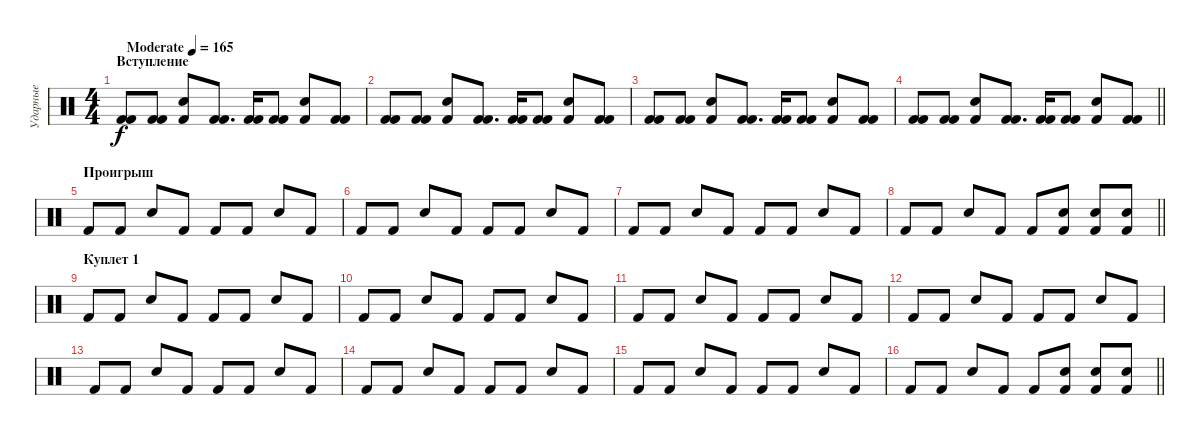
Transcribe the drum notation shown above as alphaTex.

\track ("Ударные" "Ударные") {instrument percussion}
\staff {score}
\articulation defaults
\ts (4 4)
\section ("" "Вступление")
\tempo (165 "Moderate")
\clef neutral
\ks c
("Kick (hit) 2" "Kick (hit) 2").8{dy f} ("Kick (hit) 2" "Kick (hit) 2").8 ("Snare (hit) 2" "Kick (hit) 2").8 ("Kick (hit) 2" "Kick (hit) 2").8{d} ("Kick (hit) 2" "Kick (hit) 2").16 ("Kick (hit) 2" "Kick (hit) 2").8 ("Snare (hit) 2" "Kick (hit) 2").8 ("Kick (hit) 2" "Kick (hit) 2").8 |
("Kick (hit) 2" "Kick (hit) 2").8 ("Kick (hit) 2" "Kick (hit) 2").8 ("Snare (hit) 2" "Kick (hit) 2").8 ("Kick (hit) 2" "Kick (hit) 2").8{d} ("Kick (hit) 2" "Kick (hit) 2").16 ("Kick (hit) 2" "Kick (hit) 2").8 ("Snare (hit) 2" "Kick (hit) 2").8 ("Kick (hit) 2" "Kick (hit) 2").8 |
("Kick (hit) 2" "Kick (hit) 2").8 ("Kick (hit) 2" "Kick (hit) 2").8 ("Snare (hit) 2" "Kick (hit) 2").8 ("Kick (hit) 2" "Kick (hit) 2").8{d} ("Kick (hit) 2" "Kick (hit) 2").16 ("Kick (hit) 2" "Kick (hit) 2").8 ("Snare (hit) 2" "Kick (hit) 2").8 ("Kick (hit) 2" "Kick (hit) 2").8 |
\barLineRight lightlight
("Kick (hit) 2" "Kick (hit) 2").8 ("Kick (hit) 2" "Kick (hit) 2").8 ("Snare (hit) 2" "Kick (hit) 2").8 ("Kick (hit) 2" "Kick (hit) 2").8{d} ("Kick (hit) 2" "Kick (hit) 2").16 ("Kick (hit) 2" "Kick (hit) 2").8 ("Snare (hit) 2" "Kick (hit) 2").8 ("Kick (hit) 2" "Kick (hit) 2").8 |
\section ("" "Проигрыш")
"Kick (hit) 2".8 "Kick (hit) 2".8 "Snare (hit) 2".8 "Kick (hit) 2".8 "Kick (hit) 2".8 "Kick (hit) 2".8 "Snare (hit) 2".8 "Kick (hit) 2".8 |
"Kick (hit) 2".8 "Kick (hit) 2".8 "Snare (hit) 2".8 "Kick (hit) 2".8 "Kick (hit) 2".8 "Kick (hit) 2".8 "Snare (hit) 2".8 "Kick (hit) 2".8 |
"Kick (hit) 2".8 "Kick (hit) 2".8 "Snare (hit) 2".8 "Kick (hit) 2".8 "Kick (hit) 2".8 "Kick (hit) 2".8 "Snare (hit) 2".8 "Kick (hit) 2".8 |
\barLineRight lightlight "Kick (hit) 2".8 "Kick (hit) 2".8 "Snare (hit) 2".8 "Kick (hit) 2".8 "Kick (hit) 2".8
("Kick (hit) 2" "Snare (hit) 2").8 ("Kick (hit) 2" "Snare (hit) 2").8 ("Kick (hit) 2" "Snare (hit) 2").8 |
\section ("" "Куплет 1")
"Kick (hit) 2".8 "Kick (hit) 2".8 "Snare (hit) 2".8 "Kick (hit) 2".8 "Kick (hit) 2".8 "Kick (hit) 2".8 "Snare (hit) 2".8 "Kick (hit) 2".8 |
"Kick (hit) 2".8 "Kick (hit) 2".8 "Snare (hit) 2".8 "Kick (hit) 2".8 "Kick (hit) 2".8 "Kick (hit) 2".8 "Snare (hit) 2".8 "Kick (hit) 2".8 |
"Kick (hit) 2".8 "Kick (hit) 2".8 "Snare (hit) 2".8 "Kick (hit) 2".8 "Kick (hit) 2".8 "Kick (hit) 2".8 "Snare (hit) 2".8 "Kick (hit) 2".8 |
"Kick (hit) 2".8 "Kick (hit) 2".8 "Snare (hit) 2".8 "Kick (hit) 2".8 "Kick (hit) 2".8 "Kick (hit) 2".8 "Snare (hit) 2".8 "Kick (hit) 2".8 |
"Kick (hit) 2".8 "Kick (hit) 2".8 "Snare (hit) 2".8 "Kick (hit) 2".8 "Kick (hit) 2".8 "Kick (hit) 2".8 "Snare (hit) 2".8 "Kick (hit) 2".8 |
"Kick (hit) 2".8 "Kick (hit) 2".8 "Snare (hit) 2".8 "Kick (hit) 2".8 "Kick (hit) 2".8 "Kick (hit) 2".8 "Snare (hit) 2".8 "Kick (hit) 2".8 |
"Kick (hit) 2".8 "Kick (hit) 2".8 "Snare (hit) 2".8 "Kick (hit) 2".8 "Kick (hit) 2".8 "Kick (hit) 2".8 "Snare (hit) 2".8 "Kick (hit) 2".8 |
\barLineRight lightlight "Kick (hit) 2".8 "Kick (hit) 2".8 "Snare (hit) 2".8 "Kick (hit) 2".8 "Kick (hit) 2".8
("Kick (hit) 2" "Snare (hit) 2").8 ("Kick (hit) 2" "Snare (hit) 2").8 ("Kick (hit) 2" "Snare (hit) 2").8
